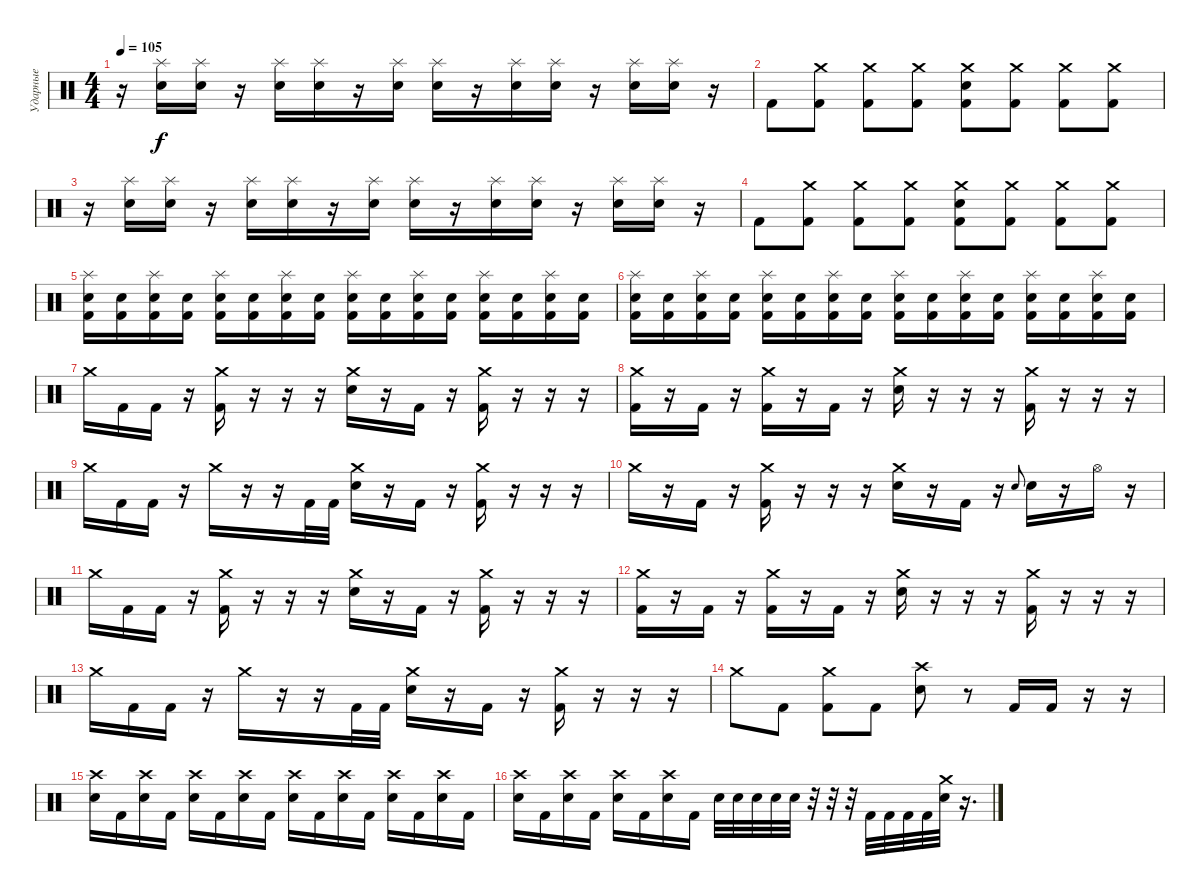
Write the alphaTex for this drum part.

\track ("Ударные" "Ударные") {instrument percussion}
\staff {score}
\articulation defaults
\ts (4 4)
\tempo 105
\clef neutral
\ks c
r.16{dy f} ("Splash (hit)" "Electric Snare (hit)").16 ("Splash (hit)" "Electric Snare (hit)").16 r.16 ("Splash (hit)" "Electric Snare (hit)").16 ("Splash (hit)" "Electric Snare (hit)").16 r.16 ("Splash (hit)" "Electric Snare (hit)").16 ("Splash (hit)" "Electric Snare (hit)").16 r.16 ("Splash (hit)" "Electric Snare (hit)").16 ("Splash (hit)" "Electric Snare (hit)").16 r.16 ("Splash (hit)" "Electric Snare (hit)").16 ("Splash (hit)" "Electric Snare (hit)").16 r.16 |
"Kick (hit) 2".8 ("Crash medium (hit)" "Kick (hit) 2").8 ("Crash medium (hit)" "Kick (hit) 2").8 ("Crash medium (hit)" "Kick (hit) 2").8 ("Crash medium (hit)" "Electric Snare (hit)" "Kick (hit) 2").8 ("Crash medium (hit)" "Kick (hit) 2").8 ("Crash medium (hit)" "Kick (hit) 2").8 ("Crash medium (hit)" "Kick (hit) 2").8 |
r.16 ("Splash (hit)" "Electric Snare (hit)").16 ("Splash (hit)" "Electric Snare (hit)").16 r.16 ("Splash (hit)" "Electric Snare (hit)").16 ("Splash (hit)" "Electric Snare (hit)").16 r.16 ("Splash (hit)" "Electric Snare (hit)").16 ("Splash (hit)" "Electric Snare (hit)").16 r.16 ("Splash (hit)" "Electric Snare (hit)").16 ("Splash (hit)" "Electric Snare (hit)").16 r.16 ("Splash (hit)" "Electric Snare (hit)").16 ("Splash (hit)" "Electric Snare (hit)").16 r.16 |
"Kick (hit) 2".8 ("Crash medium (hit)" "Kick (hit) 2").8 ("Crash medium (hit)" "Kick (hit) 2").8 ("Crash medium (hit)" "Kick (hit) 2").8 ("Crash medium (hit)" "Electric Snare (hit)" "Kick (hit) 2").8 ("Crash medium (hit)" "Kick (hit) 2").8 ("Crash medium (hit)" "Kick (hit) 2").8 ("Crash medium (hit)" "Kick (hit) 2").8 |
("Kick (hit) 2" "Electric Snare (hit)" "Splash (hit)").16 ("Kick (hit) 2" "Electric Snare (hit)").16 ("Kick (hit) 2" "Electric Snare (hit)" "Splash (hit)").16 ("Kick (hit) 2" "Electric Snare (hit)").16 ("Kick (hit) 2" "Electric Snare (hit)" "Splash (hit)").16 ("Kick (hit) 2" "Electric Snare (hit)").16 ("Kick (hit) 2" "Electric Snare (hit)" "Splash (hit)").16 ("Kick (hit) 2" "Electric Snare (hit)").16 ("Kick (hit) 2" "Electric Snare (hit)" "Splash (hit)").16 ("Kick (hit) 2" "Electric Snare (hit)").16 ("Kick (hit) 2" "Electric Snare (hit)" "Splash (hit)").16 ("Kick (hit) 2" "Electric Snare (hit)").16 ("Kick (hit) 2" "Electric Snare (hit)" "Splash (hit)").16 ("Kick (hit) 2" "Electric Snare (hit)").16 ("Kick (hit) 2" "Electric Snare (hit)" "Splash (hit)").16 ("Kick (hit) 2" "Electric Snare (hit)").16 |
("Kick (hit) 2" "Electric Snare (hit)" "Splash (hit)").16 ("Kick (hit) 2" "Electric Snare (hit)").16 ("Kick (hit) 2" "Electric Snare (hit)" "Splash (hit)").16 ("Kick (hit) 2" "Electric Snare (hit)").16 ("Kick (hit) 2" "Electric Snare (hit)" "Splash (hit)").16 ("Kick (hit) 2" "Electric Snare (hit)").16 ("Kick (hit) 2" "Electric Snare (hit)" "Splash (hit)").16 ("Kick (hit) 2" "Electric Snare (hit)").16 ("Kick (hit) 2" "Electric Snare (hit)" "Splash (hit)").16 ("Kick (hit) 2" "Electric Snare (hit)").16 ("Kick (hit) 2" "Electric Snare (hit)" "Splash (hit)").16 ("Kick (hit) 2" "Electric Snare (hit)").16 ("Kick (hit) 2" "Electric Snare (hit)" "Splash (hit)").16 ("Kick (hit) 2" "Electric Snare (hit)").16 ("Kick (hit) 2" "Electric Snare (hit)" "Splash (hit)").16 ("Kick (hit) 2" "Electric Snare (hit)").16 |
"Crash medium (hit)".16 "Kick (hit) 2".16 "Kick (hit) 2".16 r.16 ("Crash medium (hit)" "Kick (hit) 2").16 r.16 r.16 r.16 ("Crash medium (hit)" "Electric Snare (hit)").16 r.16 "Kick (hit) 2".16 r.16 ("Crash medium (hit)" "Kick (hit) 2").16 r.16 r.16 r.16 |
("Crash medium (hit)" "Kick (hit) 2").16 r.16 "Kick (hit) 2".16 r.16 ("Crash medium (hit)" "Kick (hit) 2").16 r.16 "Kick (hit) 2".16 r.16 ("Crash medium (hit)" "Electric Snare (hit)").16 r.16 r.16 r.16 ("Crash medium (hit)" "Kick (hit) 2").16 r.16 r.16 r.16 |
"Crash medium (hit)".16 "Kick (hit) 2".16 "Kick (hit) 2".16 r.16 "Crash medium (hit)".16 r.16 r.16 "Kick (hit) 2".32 "Kick (hit) 2".32 ("Crash medium (hit)" "Electric Snare (hit)").16 r.16 "Kick (hit) 2".16 r.16 ("Crash medium (hit)" "Kick (hit) 2").16 r.16 r.16 r.16 |
"Crash medium (hit)".16 r.16 "Kick (hit) 2".16 r.16 ("Crash medium (hit)" "Kick (hit) 2").16 r.16 r.16 r.16 ("Crash medium (hit)" "Electric Snare (hit)").16 r.16 "Kick (hit) 2".16 r.16 "Electric Snare (hit)".8{gr onbeat} "Electric Snare (hit)".16 r.16 "Hi-Hat (open)".16 r.16 |
"Crash medium (hit)".16 "Kick (hit) 2".16 "Kick (hit) 2".16 r.16 ("Crash medium (hit)" "Kick (hit) 2").16 r.16 r.16 r.16 ("Crash medium (hit)" "Electric Snare (hit)").16 r.16 "Kick (hit) 2".16 r.16 ("Crash medium (hit)" "Kick (hit) 2").16 r.16 r.16 r.16 |
("Crash medium (hit)" "Kick (hit) 2").16 r.16 "Kick (hit) 2".16 r.16 ("Crash medium (hit)" "Kick (hit) 2").16 r.16 "Kick (hit) 2".16 r.16 ("Crash medium (hit)" "Electric Snare (hit)").16 r.16 r.16 r.16 ("Crash medium (hit)" "Kick (hit) 2").16 r.16 r.16 r.16 |
"Crash medium (hit)".16 "Kick (hit) 2".16 "Kick (hit) 2".16 r.16 "Crash medium (hit)".16 r.16 r.16 "Kick (hit) 2".32 "Kick (hit) 2".32 ("Crash medium (hit)" "Electric Snare (hit)").16 r.16 "Kick (hit) 2".16 r.16 ("Crash medium (hit)" "Kick (hit) 2").16 r.16 r.16 r.16 |
"Crash medium (hit)".8 "Kick (hit) 2".8 ("Kick (hit) 2" "Crash medium (hit)").8 "Kick (hit) 2".8 ("Electric Snare (hit)" "Crash high (hit)").8 r.8 "Kick (hit) 2".16 "Kick (hit) 2".16 r.16 r.16 |
("Electric Snare (hit)" "Crash high (hit)").16 "Kick (hit) 2".16 ("Electric Snare (hit)" "Crash high (hit)").16 "Kick (hit) 2".16 ("Electric Snare (hit)" "Crash high (hit)").16 "Kick (hit) 2".16 ("Electric Snare (hit)" "Crash high (hit)").16 "Kick (hit) 2".16 ("Electric Snare (hit)" "Crash high (hit)").16 "Kick (hit) 2".16 ("Electric Snare (hit)" "Crash high (hit)").16 "Kick (hit) 2".16 ("Electric Snare (hit)" "Crash high (hit)").16 "Kick (hit) 2".16 ("Electric Snare (hit)" "Crash high (hit)").16 "Kick (hit) 2".16 |
("Electric Snare (hit)" "Crash high (hit)").16 "Kick (hit) 2".16 ("Electric Snare (hit)" "Crash high (hit)").16 "Kick (hit) 2".16 ("Electric Snare (hit)" "Crash high (hit)").16 "Kick (hit) 2".16 ("Electric Snare (hit)" "Crash high (hit)").16 "Kick (hit) 2".16 "Electric Snare (hit)".32 "Electric Snare (hit)".32 "Electric Snare (hit)".32 "Electric Snare (hit)".32 "Electric Snare (hit)".32 r.32 r.32 r.32 "Kick (hit) 2".32 "Kick (hit) 2".32 "Kick (hit) 2".32 "Kick (hit) 2".32 ("Electric Snare (hit)" "Crash medium (hit)").32 r.16{d}
